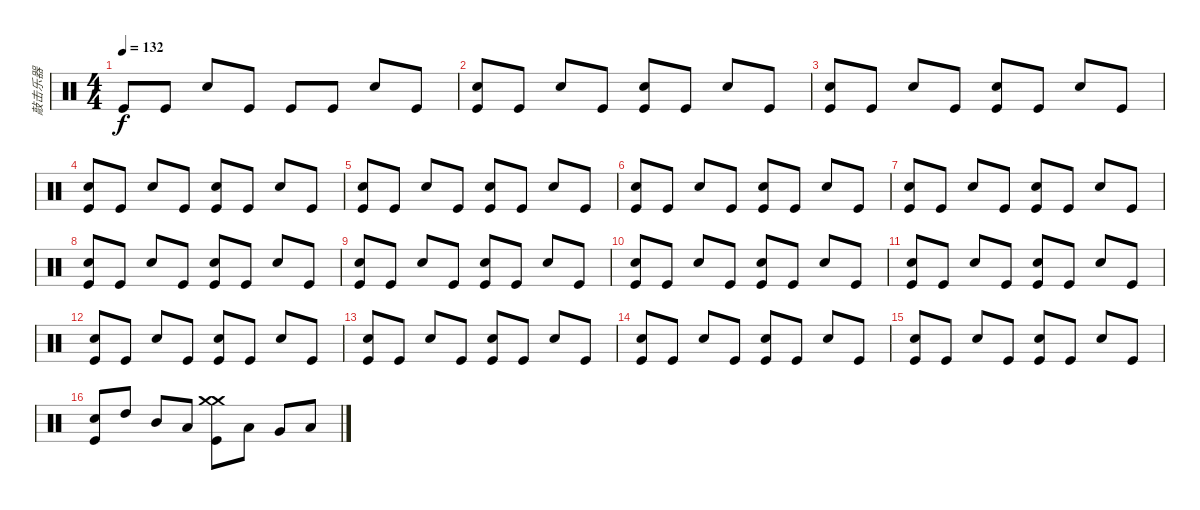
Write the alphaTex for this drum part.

\track ("敲击乐器" "敲击乐器") {instrument percussion}
\staff {score}
\articulation defaults
\ts (4 4)
\tempo 132
\clef neutral
\ks c "Kick (hit)".8{dy f} "Kick (hit)".8 "Snare (hit) 2".8 "Kick (hit)".8 "Kick (hit)".8 "Kick (hit)".8 "Snare (hit) 2".8 "Kick (hit)".8
|
("Snare (hit) 2" "Kick (hit)").8 "Kick (hit)".8 "Snare (hit) 2".8 "Kick (hit)".8 ("Snare (hit) 2" "Kick (hit)").8 "Kick (hit)".8 "Snare (hit) 2".8 "Kick (hit)".8 |
("Snare (hit) 2" "Kick (hit)").8 "Kick (hit)".8 "Snare (hit) 2".8 "Kick (hit)".8 ("Snare (hit) 2" "Kick (hit)").8 "Kick (hit)".8 "Snare (hit) 2".8 "Kick (hit)".8 |
("Snare (hit) 2" "Kick (hit)").8 "Kick (hit)".8 "Snare (hit) 2".8 "Kick (hit)".8 ("Snare (hit) 2" "Kick (hit)").8 "Kick (hit)".8 "Snare (hit) 2".8 "Kick (hit)".8 |
("Snare (hit) 2" "Kick (hit)").8 "Kick (hit)".8 "Snare (hit) 2".8 "Kick (hit)".8 ("Snare (hit) 2" "Kick (hit)").8 "Kick (hit)".8 "Snare (hit) 2".8 "Kick (hit)".8 |
("Snare (hit) 2" "Kick (hit)").8 "Kick (hit)".8 "Snare (hit) 2".8 "Kick (hit)".8 ("Snare (hit) 2" "Kick (hit)").8 "Kick (hit)".8 "Snare (hit) 2".8 "Kick (hit)".8 |
("Snare (hit) 2" "Kick (hit)").8 "Kick (hit)".8 "Snare (hit) 2".8 "Kick (hit)".8 ("Snare (hit) 2" "Kick (hit)").8 "Kick (hit)".8 "Snare (hit) 2".8 "Kick (hit)".8 |
("Snare (hit) 2" "Kick (hit)").8 "Kick (hit)".8 "Snare (hit) 2".8 "Kick (hit)".8 ("Snare (hit) 2" "Kick (hit)").8 "Kick (hit)".8 "Snare (hit) 2".8 "Kick (hit)".8 |
("Snare (hit) 2" "Kick (hit)").8 "Kick (hit)".8 "Snare (hit) 2".8 "Kick (hit)".8 ("Snare (hit) 2" "Kick (hit)").8 "Kick (hit)".8 "Snare (hit) 2".8 "Kick (hit)".8 |
("Snare (hit) 2" "Kick (hit)").8 "Kick (hit)".8 "Snare (hit) 2".8 "Kick (hit)".8 ("Snare (hit) 2" "Kick (hit)").8 "Kick (hit)".8 "Snare (hit) 2".8 "Kick (hit)".8 |
("Snare (hit) 2" "Kick (hit)").8 "Kick (hit)".8 "Snare (hit) 2".8 "Kick (hit)".8 ("Snare (hit) 2" "Kick (hit)").8 "Kick (hit)".8 "Snare (hit) 2".8 "Kick (hit)".8 |
("Snare (hit) 2" "Kick (hit)").8 "Kick (hit)".8 "Snare (hit) 2".8 "Kick (hit)".8 ("Snare (hit) 2" "Kick (hit)").8 "Kick (hit)".8 "Snare (hit) 2".8 "Kick (hit)".8 |
("Snare (hit) 2" "Kick (hit)").8 "Kick (hit)".8 "Snare (hit) 2".8 "Kick (hit)".8 ("Snare (hit) 2" "Kick (hit)").8 "Kick (hit)".8 "Snare (hit) 2".8 "Kick (hit)".8 |
("Snare (hit) 2" "Kick (hit)").8 "Kick (hit)".8 "Snare (hit) 2".8 "Kick (hit)".8 ("Snare (hit) 2" "Kick (hit)").8 "Kick (hit)".8 "Snare (hit) 2".8 "Kick (hit)".8 |
("Snare (hit) 2" "Kick (hit)").8 "Kick (hit)".8 "Snare (hit) 2".8 "Kick (hit)".8 ("Snare (hit) 2" "Kick (hit)").8 "Kick (hit)".8 "Snare (hit) 2".8 "Kick (hit)".8 |
("Snare (hit) 2" "Kick (hit)").8 "High Tom (hit)".8 "Mid Tom (hit)".8 "Low Tom (hit)".8 ("Crash medium (hit)" "Crash medium (hit)" "Kick (hit)").8 "Low Tom (hit)".8 "Very Low Tom (hit)".8 "Low Floor Tom (hit)".8
